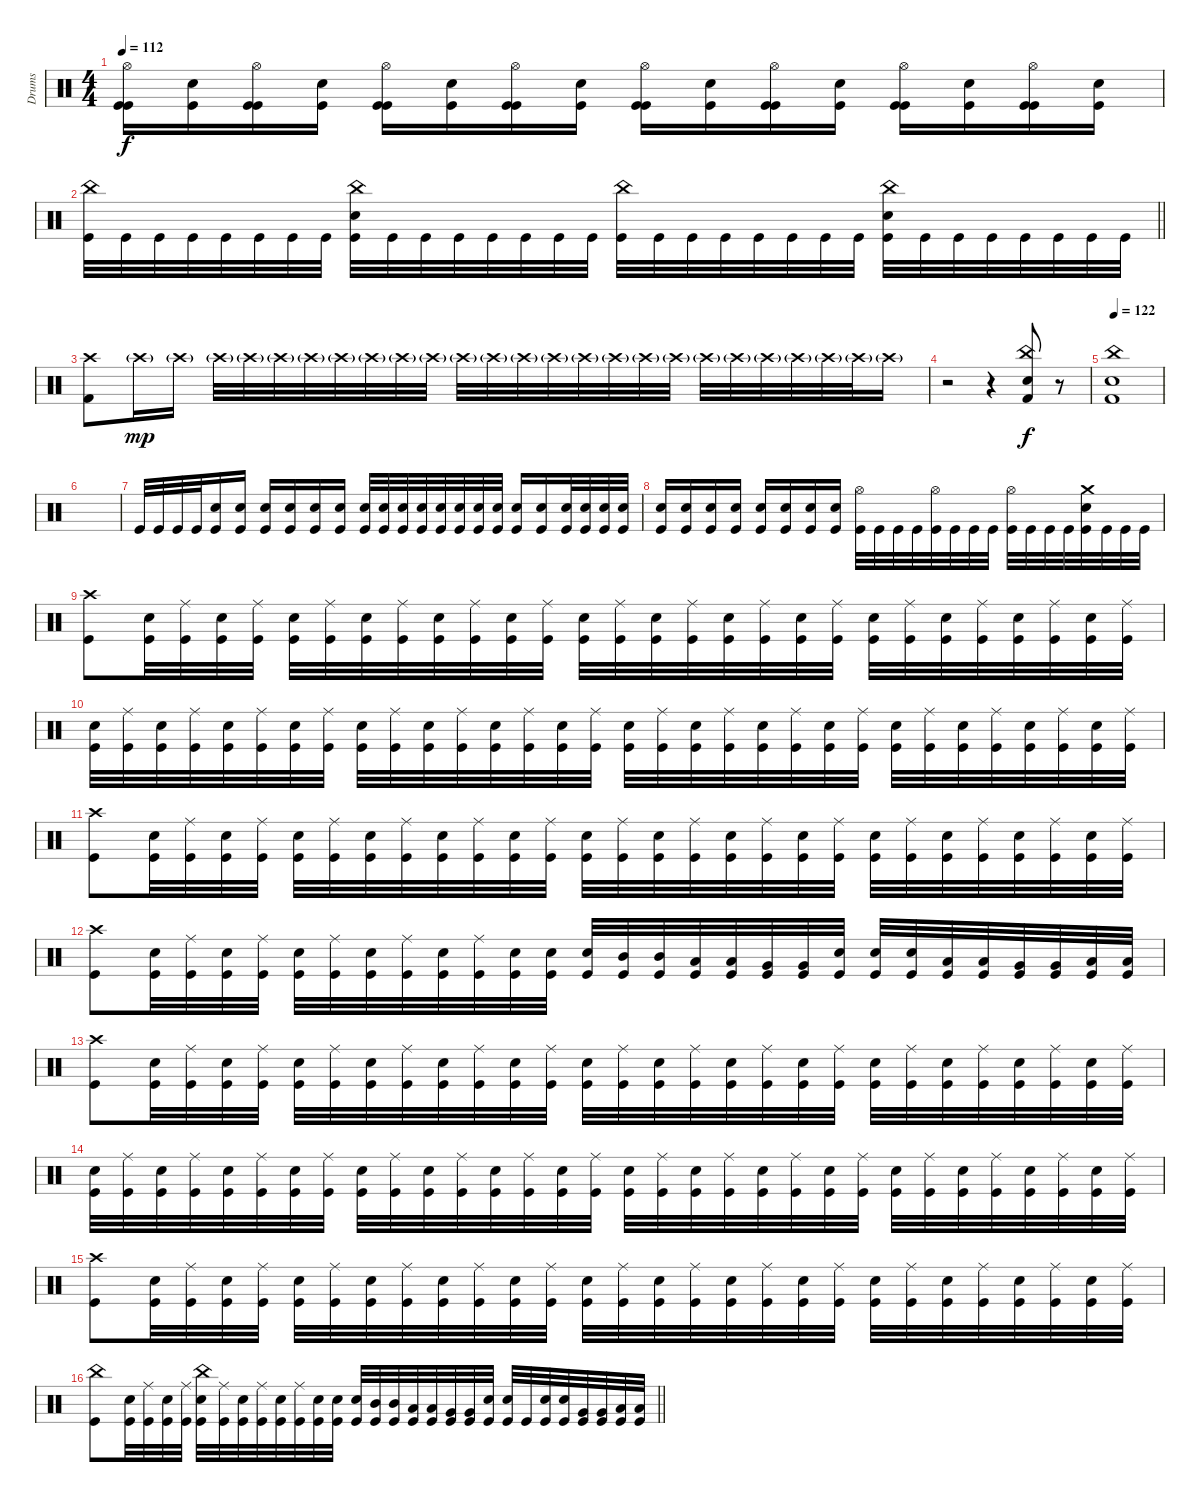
\track ("Drums" "Drums") {instrument percussion}
\staff
\articulation defaults
\ts (4 4)
\tempo 112
\clef neutral
\ks c
("Hi-Hat (open)" "Kick (hit)" "Kick (hit)").16{dy f} ("Electric Snare (hit)" "Kick (hit)").16 ("Hi-Hat (open)" "Kick (hit)" "Kick (hit)").16 ("Electric Snare (hit)" "Kick (hit)").16 ("Hi-Hat (open)" "Kick (hit)" "Kick (hit)").16 ("Electric Snare (hit)" "Kick (hit)").16 ("Hi-Hat (open)" "Kick (hit)" "Kick (hit)").16 ("Electric Snare (hit)" "Kick (hit)").16 ("Hi-Hat (open)" "Kick (hit)" "Kick (hit)").16 ("Electric Snare (hit)" "Kick (hit)").16 ("Hi-Hat (open)" "Kick (hit)" "Kick (hit)").16 ("Electric Snare (hit)" "Kick (hit)").16 ("Hi-Hat (open)" "Kick (hit)" "Kick (hit)").16 ("Electric Snare (hit)" "Kick (hit)").16 ("Hi-Hat (open)" "Kick (hit)" "Kick (hit)").16 ("Electric Snare (hit)" "Kick (hit)").16 |
\barLineRight lightlight
("China (hit)" "Kick (hit)").32 "Kick (hit)".32 "Kick (hit)".32 "Kick (hit)".32 "Kick (hit)".32 "Kick (hit)".32 "Kick (hit)".32 "Kick (hit)".32 ("China (hit)" "Electric Snare (hit)" "Kick (hit)").32 "Kick (hit)".32 "Kick (hit)".32 "Kick (hit)".32 "Kick (hit)".32 "Kick (hit)".32 "Kick (hit)".32 "Kick (hit)".32 ("China (hit)" "Kick (hit)").32 "Kick (hit)".32 "Kick (hit)".32 "Kick (hit)".32 "Kick (hit)".32 "Kick (hit)".32 "Kick (hit)".32 "Kick (hit)".32 ("China (hit)" "Electric Snare (hit)" "Kick (hit)").32 "Kick (hit)".32 "Kick (hit)".32 "Kick (hit)".32 "Kick (hit)".32 "Kick (hit)".32 "Kick (hit)".32 "Kick (hit)".32 |
\section ("" "")
("Crash high (hit)" "Kick (hit) 2").8 "Crash high (hit)"{g}.16{dy mp} "Crash high (hit)"{g}.16 "Crash high (hit)"{g}.32 "Crash high (hit)"{g}.32 "Crash high (hit)"{g}.32 "Crash high (hit)"{g}.32 "Crash high (hit)"{g}.32 "Crash high (hit)"{g}.32 "Crash high (hit)"{g}.32 "Crash high (hit)"{g}.32 "Crash high (hit)"{g}.32 "Crash high (hit)"{g}.32 "Crash high (hit)"{g}.32 "Crash high (hit)"{g}.32 "Crash high (hit)"{g}.32 "Crash high (hit)"{g}.32 "Crash high (hit)"{g}.32 "Crash high (hit)"{g}.32 "Crash high (hit)"{g}.32 "Crash high (hit)"{g}.32 "Crash high (hit)"{g}.32 "Crash high (hit)"{g}.32 "Crash high (hit)"{g}.32 "Crash high (hit)"{g}.32 "Crash high (hit)"{g}.16 |
r.2 r.4 ("China (hit)" "Electric Snare (hit)" "Kick (hit) 2").8{dy f} r.8 |
\tempo 122
("China (hit)" "Electric Snare (hit)" "Kick (hit) 2").1 |
|
"Kick (hit)".32 "Kick (hit)".32 "Kick (hit)".32 "Kick (hit)".32 ("Electric Snare (hit)" "Kick (hit)").16 ("Electric Snare (hit)" "Kick (hit)").16 ("Electric Snare (hit)" "Kick (hit)").16 ("Electric Snare (hit)" "Kick (hit)").16 ("Electric Snare (hit)" "Kick (hit)").16 ("Electric Snare (hit)" "Kick (hit)").16 ("Electric Snare (hit)" "Kick (hit)").32 ("Electric Snare (hit)" "Kick (hit)").32 ("Electric Snare (hit)" "Kick (hit)").32 ("Electric Snare (hit)" "Kick (hit)").32 ("Electric Snare (hit)" "Kick (hit)").32 ("Electric Snare (hit)" "Kick (hit)").32 ("Electric Snare (hit)" "Kick (hit)").32 ("Electric Snare (hit)" "Kick (hit)").32 ("Electric Snare (hit)" "Kick (hit)").16 ("Electric Snare (hit)" "Kick (hit)").16 ("Electric Snare (hit)" "Kick (hit)").32 ("Electric Snare (hit)" "Kick (hit)").32 ("Electric Snare (hit)" "Kick (hit)").32 ("Electric Snare (hit)" "Kick (hit)").32 |
("Electric Snare (hit)" "Kick (hit)").16 ("Electric Snare (hit)" "Kick (hit)").16 ("Electric Snare (hit)" "Kick (hit)").16 ("Electric Snare (hit)" "Kick (hit)").16 ("Electric Snare (hit)" "Kick (hit)").16 ("Electric Snare (hit)" "Kick (hit)").16 ("Electric Snare (hit)" "Kick (hit)").16 ("Electric Snare (hit)" "Kick (hit)").16 ("Hi-Hat (open)" "Kick (hit)").32 "Kick (hit)".32 "Kick (hit)".32 "Kick (hit)".32 ("Hi-Hat (open)" "Kick (hit)").32 "Kick (hit)".32 "Kick (hit)".32 "Kick (hit)".32 ("Hi-Hat (open)" "Kick (hit)").32 "Kick (hit)".32 "Kick (hit)".32 "Kick (hit)".32 ("Crash medium (hit)" "Electric Snare (hit)" "Kick (hit)").32 "Kick (hit)".32 "Kick (hit)".32 "Kick (hit)".32 |
("Crash high (hit)" "Kick (hit)").8 ("Electric Snare (hit)" "Kick (hit)").32 ("Ride (middle)" "Kick (hit)").32 ("Electric Snare (hit)" "Kick (hit)").32 ("Ride (middle)" "Kick (hit)").32 ("Electric Snare (hit)" "Kick (hit)").32 ("Ride (middle)" "Kick (hit)").32 ("Electric Snare (hit)" "Kick (hit)").32 ("Ride (middle)" "Kick (hit)").32 ("Electric Snare (hit)" "Kick (hit)").32 ("Ride (middle)" "Kick (hit)").32 ("Electric Snare (hit)" "Kick (hit)").32 ("Ride (middle)" "Kick (hit)").32 ("Electric Snare (hit)" "Kick (hit)").32 ("Ride (middle)" "Kick (hit)").32 ("Electric Snare (hit)" "Kick (hit)").32 ("Ride (middle)" "Kick (hit)").32 ("Electric Snare (hit)" "Kick (hit)").32 ("Ride (middle)" "Kick (hit)").32 ("Electric Snare (hit)" "Kick (hit)").32 ("Ride (middle)" "Kick (hit)").32 ("Electric Snare (hit)" "Kick (hit)").32 ("Ride (middle)" "Kick (hit)").32 ("Electric Snare (hit)" "Kick (hit)").32 ("Ride (middle)" "Kick (hit)").32 ("Electric Snare (hit)" "Kick (hit)").32 ("Ride (middle)" "Kick (hit)").32 ("Electric Snare (hit)" "Kick (hit)").32 ("Ride (middle)" "Kick (hit)").32 |
("Electric Snare (hit)" "Kick (hit)").32 ("Ride (middle)" "Kick (hit)").32 ("Electric Snare (hit)" "Kick (hit)").32 ("Ride (middle)" "Kick (hit)").32 ("Electric Snare (hit)" "Kick (hit)").32 ("Ride (middle)" "Kick (hit)").32 ("Electric Snare (hit)" "Kick (hit)").32 ("Ride (middle)" "Kick (hit)").32 ("Electric Snare (hit)" "Kick (hit)").32 ("Ride (middle)" "Kick (hit)").32 ("Electric Snare (hit)" "Kick (hit)").32 ("Ride (middle)" "Kick (hit)").32 ("Electric Snare (hit)" "Kick (hit)").32 ("Ride (middle)" "Kick (hit)").32 ("Electric Snare (hit)" "Kick (hit)").32 ("Ride (middle)" "Kick (hit)").32 ("Electric Snare (hit)" "Kick (hit)").32 ("Ride (middle)" "Kick (hit)").32 ("Electric Snare (hit)" "Kick (hit)").32 ("Ride (middle)" "Kick (hit)").32 ("Electric Snare (hit)" "Kick (hit)").32 ("Ride (middle)" "Kick (hit)").32 ("Electric Snare (hit)" "Kick (hit)").32 ("Ride (middle)" "Kick (hit)").32 ("Electric Snare (hit)" "Kick (hit)").32 ("Ride (middle)" "Kick (hit)").32 ("Electric Snare (hit)" "Kick (hit)").32 ("Ride (middle)" "Kick (hit)").32 ("Electric Snare (hit)" "Kick (hit)").32 ("Ride (middle)" "Kick (hit)").32 ("Electric Snare (hit)" "Kick (hit)").32 ("Ride (middle)" "Kick (hit)").32 |
("Crash high (hit)" "Kick (hit)").8 ("Electric Snare (hit)" "Kick (hit)").32 ("Ride (middle)" "Kick (hit)").32 ("Electric Snare (hit)" "Kick (hit)").32 ("Ride (middle)" "Kick (hit)").32 ("Electric Snare (hit)" "Kick (hit)").32 ("Ride (middle)" "Kick (hit)").32 ("Electric Snare (hit)" "Kick (hit)").32 ("Ride (middle)" "Kick (hit)").32 ("Electric Snare (hit)" "Kick (hit)").32 ("Ride (middle)" "Kick (hit)").32 ("Electric Snare (hit)" "Kick (hit)").32 ("Ride (middle)" "Kick (hit)").32 ("Electric Snare (hit)" "Kick (hit)").32 ("Ride (middle)" "Kick (hit)").32 ("Electric Snare (hit)" "Kick (hit)").32 ("Ride (middle)" "Kick (hit)").32 ("Electric Snare (hit)" "Kick (hit)").32 ("Ride (middle)" "Kick (hit)").32 ("Electric Snare (hit)" "Kick (hit)").32 ("Ride (middle)" "Kick (hit)").32 ("Electric Snare (hit)" "Kick (hit)").32 ("Ride (middle)" "Kick (hit)").32 ("Electric Snare (hit)" "Kick (hit)").32 ("Ride (middle)" "Kick (hit)").32 ("Electric Snare (hit)" "Kick (hit)").32 ("Ride (middle)" "Kick (hit)").32 ("Electric Snare (hit)" "Kick (hit)").32 ("Ride (middle)" "Kick (hit)").32 |
("Crash high (hit)" "Kick (hit)").8 ("Electric Snare (hit)" "Kick (hit)").32 ("Ride (middle)" "Kick (hit)").32 ("Electric Snare (hit)" "Kick (hit)").32 ("Ride (middle)" "Kick (hit)").32 ("Electric Snare (hit)" "Kick (hit)").32 ("Ride (middle)" "Kick (hit)").32 ("Electric Snare (hit)" "Kick (hit)").32 ("Ride (middle)" "Kick (hit)").32 ("Electric Snare (hit)" "Kick (hit)").32 ("Ride (middle)" "Kick (hit)").32 ("Electric Snare (hit)" "Kick (hit)").32 ("Electric Snare (hit)" "Kick (hit)").32 ("Electric Snare (hit)" "Kick (hit)").32 ("Mid Tom (hit)" "Kick (hit)").32 ("Mid Tom (hit)" "Kick (hit)").32 ("Low Tom (hit)" "Kick (hit)").32 ("Low Tom (hit)" "Kick (hit)").32 ("Very Low Tom (hit)" "Kick (hit)").32 ("Very Low Tom (hit)" "Kick (hit)").32 ("Electric Snare (hit)" "Kick (hit)").32 ("Electric Snare (hit)" "Kick (hit)").32 ("Electric Snare (hit)" "Kick (hit)").32 ("Low Tom (hit)" "Kick (hit)").32 ("Low Tom (hit)" "Kick (hit)").32 ("Very Low Tom (hit)" "Kick (hit)").32 ("Very Low Tom (hit)" "Kick (hit)").32 ("Low Floor Tom (hit)" "Kick (hit)").32 ("Low Floor Tom (hit)" "Kick (hit)").32 |
("Crash high (hit)" "Kick (hit)").8 ("Electric Snare (hit)" "Kick (hit)").32 ("Ride (middle)" "Kick (hit)").32 ("Electric Snare (hit)" "Kick (hit)").32 ("Ride (middle)" "Kick (hit)").32 ("Electric Snare (hit)" "Kick (hit)").32 ("Ride (middle)" "Kick (hit)").32 ("Electric Snare (hit)" "Kick (hit)").32 ("Ride (middle)" "Kick (hit)").32 ("Electric Snare (hit)" "Kick (hit)").32 ("Ride (middle)" "Kick (hit)").32 ("Electric Snare (hit)" "Kick (hit)").32 ("Ride (middle)" "Kick (hit)").32 ("Electric Snare (hit)" "Kick (hit)").32 ("Ride (middle)" "Kick (hit)").32 ("Electric Snare (hit)" "Kick (hit)").32 ("Ride (middle)" "Kick (hit)").32 ("Electric Snare (hit)" "Kick (hit)").32 ("Ride (middle)" "Kick (hit)").32 ("Electric Snare (hit)" "Kick (hit)").32 ("Ride (middle)" "Kick (hit)").32 ("Electric Snare (hit)" "Kick (hit)").32 ("Ride (middle)" "Kick (hit)").32 ("Electric Snare (hit)" "Kick (hit)").32 ("Ride (middle)" "Kick (hit)").32 ("Electric Snare (hit)" "Kick (hit)").32 ("Ride (middle)" "Kick (hit)").32 ("Electric Snare (hit)" "Kick (hit)").32 ("Ride (middle)" "Kick (hit)").32 |
("Electric Snare (hit)" "Kick (hit)").32 ("Ride (middle)" "Kick (hit)").32 ("Electric Snare (hit)" "Kick (hit)").32 ("Ride (middle)" "Kick (hit)").32 ("Electric Snare (hit)" "Kick (hit)").32 ("Ride (middle)" "Kick (hit)").32 ("Electric Snare (hit)" "Kick (hit)").32 ("Ride (middle)" "Kick (hit)").32 ("Electric Snare (hit)" "Kick (hit)").32 ("Ride (middle)" "Kick (hit)").32 ("Electric Snare (hit)" "Kick (hit)").32 ("Ride (middle)" "Kick (hit)").32 ("Electric Snare (hit)" "Kick (hit)").32 ("Ride (middle)" "Kick (hit)").32 ("Electric Snare (hit)" "Kick (hit)").32 ("Ride (middle)" "Kick (hit)").32 ("Electric Snare (hit)" "Kick (hit)").32 ("Ride (middle)" "Kick (hit)").32 ("Electric Snare (hit)" "Kick (hit)").32 ("Ride (middle)" "Kick (hit)").32 ("Electric Snare (hit)" "Kick (hit)").32 ("Ride (middle)" "Kick (hit)").32 ("Electric Snare (hit)" "Kick (hit)").32 ("Ride (middle)" "Kick (hit)").32 ("Electric Snare (hit)" "Kick (hit)").32 ("Ride (middle)" "Kick (hit)").32 ("Electric Snare (hit)" "Kick (hit)").32 ("Ride (middle)" "Kick (hit)").32 ("Electric Snare (hit)" "Kick (hit)").32 ("Ride (middle)" "Kick (hit)").32 ("Electric Snare (hit)" "Kick (hit)").32 ("Ride (middle)" "Kick (hit)").32 |
("Crash high (hit)" "Kick (hit)").8 ("Electric Snare (hit)" "Kick (hit)").32 ("Ride (middle)" "Kick (hit)").32 ("Electric Snare (hit)" "Kick (hit)").32 ("Ride (middle)" "Kick (hit)").32 ("Electric Snare (hit)" "Kick (hit)").32 ("Ride (middle)" "Kick (hit)").32 ("Electric Snare (hit)" "Kick (hit)").32 ("Ride (middle)" "Kick (hit)").32 ("Electric Snare (hit)" "Kick (hit)").32 ("Ride (middle)" "Kick (hit)").32 ("Electric Snare (hit)" "Kick (hit)").32 ("Ride (middle)" "Kick (hit)").32 ("Electric Snare (hit)" "Kick (hit)").32 ("Ride (middle)" "Kick (hit)").32 ("Electric Snare (hit)" "Kick (hit)").32 ("Ride (middle)" "Kick (hit)").32 ("Electric Snare (hit)" "Kick (hit)").32 ("Ride (middle)" "Kick (hit)").32 ("Electric Snare (hit)" "Kick (hit)").32 ("Ride (middle)" "Kick (hit)").32 ("Electric Snare (hit)" "Kick (hit)").32 ("Ride (middle)" "Kick (hit)").32 ("Electric Snare (hit)" "Kick (hit)").32 ("Ride (middle)" "Kick (hit)").32 ("Electric Snare (hit)" "Kick (hit)").32 ("Ride (middle)" "Kick (hit)").32 ("Electric Snare (hit)" "Kick (hit)").32 ("Ride (middle)" "Kick (hit)").32 |
\barLineRight lightlight
("China (hit)" "Kick (hit)").8 ("Electric Snare (hit)" "Kick (hit)").32 ("Ride (middle)" "Kick (hit)").32 ("Electric Snare (hit)" "Kick (hit)").32 ("Ride (middle)" "Kick (hit)").32 ("China (hit)" "Electric Snare (hit)" "Kick (hit)").32 ("Ride (middle)" "Kick (hit)").32 ("Electric Snare (hit)" "Kick (hit)").32 ("Ride (middle)" "Kick (hit)").32 ("Electric Snare (hit)" "Kick (hit)").32 ("Ride (middle)" "Kick (hit)").32 ("Electric Snare (hit)" "Kick (hit)").32 ("Electric Snare (hit)" "Kick (hit)").32 ("Electric Snare (hit)" "Kick (hit)").32 ("Mid Tom (hit)" "Kick (hit)").32 ("Mid Tom (hit)" "Kick (hit)").32 ("Low Tom (hit)" "Kick (hit)").32 ("Low Tom (hit)" "Kick (hit)").32 ("Very Low Tom (hit)" "Kick (hit)").32 ("Very Low Tom (hit)" "Kick (hit)").32 ("Electric Snare (hit)" "Kick (hit)").32 ("Electric Snare (hit)" "Kick (hit)").32 "Kick (hit)".32 ("Electric Snare (hit)" "Kick (hit)").32 ("Electric Snare (hit)" "Kick (hit)").32 ("Very Low Tom (hit)" "Kick (hit)").32 ("Very Low Tom (hit)" "Kick (hit)").32 ("Low Floor Tom (hit)" "Kick (hit)").32 ("Low Floor Tom (hit)" "Kick (hit)").32
